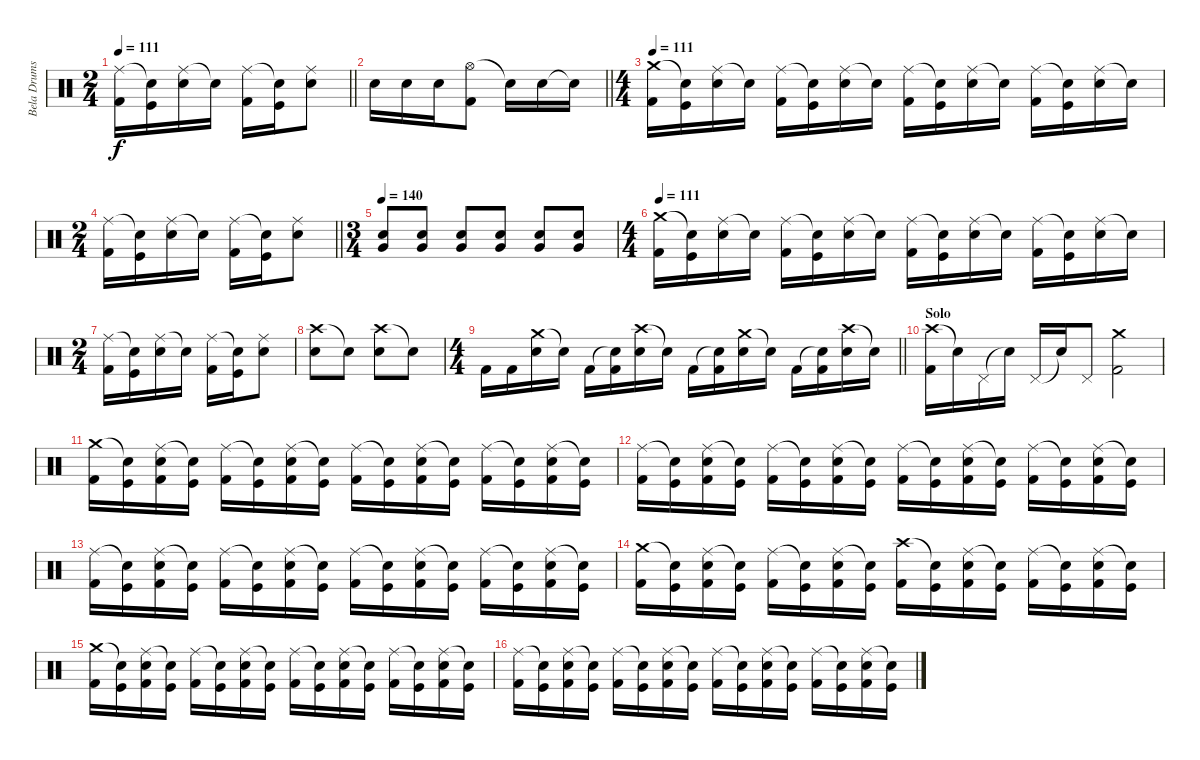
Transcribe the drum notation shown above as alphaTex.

\track ("Bela Drums" "Bela Drums") {instrument percussion}
\staff {score}
\articulation defaults
\ts (2 4)
\tempo 111
\clef neutral
\barLineRight lightlight
\ks c
("Ride (middle)" "Kick (hit) 2").16{dy f} ("Snare (hit)"{t} "Kick (hit)").16 ("Ride (middle)" "Snare (hit) 2").16 "Snare (hit)"{t}.16 ("Ride (middle)" "Kick (hit) 2").16 ("Snare (hit)"{t} "Kick (hit)").16 ("Ride (middle)" "Snare (hit) 2").8 |
\barLineRight lightlight "Snare (hit) 2".16 "Snare (hit) 2".16 "Snare (hit) 2".16
("Hi-Hat (open)" "Kick (hit) 2").8 "Snare (hit) 2"{t}.16 "Snare (hit) 2".16 "Snare (hit) 2"{t}.16 |
\ts (4 4)
\tempo 111
("Crash medium (hit)" "Kick (hit) 2").16 ("Snare (hit)"{t} "Kick (hit)").16 ("Ride (middle)" "Snare (hit) 2").16 "Snare (hit)"{t}.16 ("Ride (middle)" "Kick (hit) 2").16 ("Snare (hit)"{t} "Kick (hit)").16 ("Ride (middle)" "Snare (hit) 2").16 "Snare (hit)"{t}.16 ("Ride (middle)" "Kick (hit) 2").16 ("Snare (hit)"{t} "Kick (hit)").16 ("Ride (middle)" "Snare (hit) 2").16 "Snare (hit)"{t}.16 ("Ride (middle)" "Kick (hit) 2").16 ("Snare (hit)"{t} "Kick (hit)").16 ("Ride (middle)" "Snare (hit) 2").16 "Snare (hit)"{t}.16 |
\ts (2 4)
\barLineRight lightlight
("Ride (middle)" "Kick (hit) 2").16 ("Snare (hit)"{t} "Kick (hit)").16 ("Ride (middle)" "Snare (hit) 2").16 "Snare (hit)"{t}.16 ("Ride (middle)" "Kick (hit) 2").16 ("Snare (hit)"{t} "Kick (hit)").16 ("Ride (middle)" "Snare (hit) 2").8 |
\ts (3 4)
\tempo 140
("Very Low Tom (hit)" "Snare (hit) 2").8 ("Very Low Tom (hit)" "Snare (hit) 2").8 ("Very Low Tom (hit)" "Snare (hit) 2").8 ("Very Low Tom (hit)" "Snare (hit) 2").8 ("Very Low Tom (hit)" "Snare (hit) 2").8 ("Very Low Tom (hit)" "Snare (hit) 2").8 |
\ts (4 4)
\tempo 111
("Crash medium (hit)" "Kick (hit) 2").16 ("Snare (hit)"{t} "Kick (hit)").16 ("Ride (middle)" "Snare (hit) 2").16 "Snare (hit)"{t}.16 ("Ride (middle)" "Kick (hit) 2").16 ("Snare (hit)"{t} "Kick (hit)").16 ("Ride (middle)" "Snare (hit) 2").16 "Snare (hit)"{t}.16 ("Ride (middle)" "Kick (hit) 2").16 ("Snare (hit)"{t} "Kick (hit)").16 ("Ride (middle)" "Snare (hit) 2").16 "Snare (hit)"{t}.16 ("Ride (middle)" "Kick (hit) 2").16 ("Snare (hit)"{t} "Kick (hit)").16 ("Ride (middle)" "Snare (hit) 2").16 "Snare (hit)"{t}.16 |
\ts (2 4)
("Ride (middle)" "Kick (hit) 2").16 ("Snare (hit)"{t} "Kick (hit)").16 ("Ride (middle)" "Snare (hit) 2").16 "Snare (hit)"{t}.16 ("Ride (middle)" "Kick (hit) 2").16 ("Snare (hit)"{t} "Kick (hit)").16 ("Ride (middle)" "Snare (hit) 2").8 |
("Crash high (hit)" "Snare (hit) 2").8 "Snare (hit)"{t}.8 ("Crash high (hit)" "Snare (hit) 2").8 "Snare (hit)"{t}.8 |
\ts (4 4)
\barLineRight lightlight "Kick (hit) 2".16 "Kick (hit) 2".16
("Crash medium (hit)" "Snare (hit) 2").16 "Snare (hit)"{t}.16 "Kick (hit) 2".16 ("Snare (hit)"{t} "Kick (hit) 2").16 ("Crash high (hit)" "Snare (hit) 2").16 "Snare (hit)"{t}.16 "Kick (hit) 2".16 ("Snare (hit)"{t} "Kick (hit) 2").16 ("Crash medium (hit)" "Snare (hit) 2").16 "Snare (hit)"{t}.16 "Kick (hit) 2".16 ("Snare (hit)"{t} "Kick (hit) 2").16 ("Crash high (hit)" "Snare (hit) 2").16 "Snare (hit)"{t}.16 |
\section ("" "Solo")
("Crash high (hit)" "Kick (hit) 2").16 "Snare (hit)"{t}.16 "Pedal Hi-Hat (hit)".16 "Snare (hit)"{t}.16 "Pedal Hi-Hat (hit)".16 "Snare (hit)"{t}.16 "Pedal Hi-Hat (hit)".8 ("Crash medium (hit)" "Kick (hit) 2").2 |
("Crash medium (hit)" "Kick (hit) 2").16 ("Snare (hit)"{t} "Kick (hit)").16 ("Ride (middle)" "Snare (hit) 2" "Kick (hit) 2").16 ("Snare (hit)"{t} "Kick (hit)").16 ("Ride (middle)" "Kick (hit) 2").16 ("Snare (hit)"{t} "Kick (hit)").16 ("Ride (middle)" "Snare (hit) 2" "Kick (hit) 2").16 ("Snare (hit)"{t} "Kick (hit)").16 ("Ride (middle)" "Kick (hit) 2").16 ("Snare (hit)"{t} "Kick (hit)").16 ("Ride (middle)" "Snare (hit) 2" "Kick (hit) 2").16 ("Snare (hit)"{t} "Kick (hit)").16 ("Ride (middle)" "Kick (hit) 2").16 ("Snare (hit)"{t} "Kick (hit)").16 ("Ride (middle)" "Snare (hit) 2" "Kick (hit) 2").16 ("Snare (hit)"{t} "Kick (hit)").16 |
("Ride (middle)" "Kick (hit) 2").16 ("Snare (hit)"{t} "Kick (hit)").16 ("Ride (middle)" "Snare (hit) 2" "Kick (hit) 2").16 ("Snare (hit)"{t} "Kick (hit)").16 ("Ride (middle)" "Kick (hit) 2").16 ("Snare (hit)"{t} "Kick (hit)").16 ("Ride (middle)" "Snare (hit) 2" "Kick (hit) 2").16 ("Snare (hit)"{t} "Kick (hit)").16 ("Ride (middle)" "Kick (hit) 2").16 ("Snare (hit)"{t} "Kick (hit)").16 ("Ride (middle)" "Snare (hit) 2" "Kick (hit) 2").16 ("Snare (hit)"{t} "Kick (hit)").16 ("Ride (middle)" "Kick (hit) 2").16 ("Snare (hit)"{t} "Kick (hit)").16 ("Ride (middle)" "Snare (hit) 2" "Kick (hit) 2").16 ("Snare (hit)"{t} "Kick (hit)").16 |
("Ride (middle)" "Kick (hit) 2").16 ("Snare (hit)"{t} "Kick (hit)").16 ("Ride (middle)" "Snare (hit) 2" "Kick (hit) 2").16 ("Snare (hit)"{t} "Kick (hit)").16 ("Ride (middle)" "Kick (hit) 2").16 ("Snare (hit)"{t} "Kick (hit)").16 ("Ride (middle)" "Snare (hit) 2" "Kick (hit) 2").16 ("Snare (hit)"{t} "Kick (hit)").16 ("Ride (middle)" "Kick (hit) 2").16 ("Snare (hit)"{t} "Kick (hit)").16 ("Ride (middle)" "Snare (hit) 2" "Kick (hit) 2").16 ("Snare (hit)"{t} "Kick (hit)").16 ("Ride (middle)" "Kick (hit) 2").16 ("Snare (hit)"{t} "Kick (hit)").16 ("Ride (middle)" "Snare (hit) 2" "Kick (hit) 2").16 ("Snare (hit)"{t} "Kick (hit)").16 |
("Crash medium (hit)" "Kick (hit) 2").16 ("Snare (hit)"{t} "Kick (hit)").16 ("Ride (middle)" "Snare (hit) 2" "Kick (hit) 2").16 ("Snare (hit)"{t} "Kick (hit)").16 ("Ride (middle)" "Kick (hit) 2").16 ("Snare (hit)"{t} "Kick (hit)").16 ("Ride (middle)" "Snare (hit) 2" "Kick (hit) 2").16 ("Snare (hit)"{t} "Kick (hit)").16 ("Crash high (hit)" "Kick (hit) 2").16 ("Snare (hit)"{t} "Kick (hit)").16 ("Ride (middle)" "Snare (hit) 2" "Kick (hit) 2").16 ("Snare (hit)"{t} "Kick (hit)").16 ("Ride (middle)" "Kick (hit) 2").16 ("Snare (hit)"{t} "Kick (hit)").16 ("Ride (middle)" "Snare (hit) 2" "Kick (hit) 2").16 ("Snare (hit)"{t} "Kick (hit)").16 |
("Crash medium (hit)" "Kick (hit) 2").16 ("Snare (hit)"{t} "Kick (hit)").16 ("Ride (middle)" "Snare (hit) 2" "Kick (hit) 2").16 ("Snare (hit)"{t} "Kick (hit)").16 ("Ride (middle)" "Kick (hit) 2").16 ("Snare (hit)"{t} "Kick (hit)").16 ("Ride (middle)" "Snare (hit) 2" "Kick (hit) 2").16 ("Snare (hit)"{t} "Kick (hit)").16 ("Ride (middle)" "Kick (hit) 2").16 ("Snare (hit)"{t} "Kick (hit)").16 ("Ride (middle)" "Snare (hit) 2" "Kick (hit) 2").16 ("Snare (hit)"{t} "Kick (hit)").16 ("Ride (middle)" "Kick (hit) 2").16 ("Snare (hit)"{t} "Kick (hit)").16 ("Ride (middle)" "Snare (hit) 2" "Kick (hit) 2").16 ("Snare (hit)"{t} "Kick (hit)").16 |
("Ride (middle)" "Kick (hit) 2").16 ("Snare (hit)"{t} "Kick (hit)").16 ("Ride (middle)" "Snare (hit) 2" "Kick (hit) 2").16 ("Snare (hit)"{t} "Kick (hit)").16 ("Ride (middle)" "Kick (hit) 2").16 ("Snare (hit)"{t} "Kick (hit)").16 ("Ride (middle)" "Snare (hit) 2" "Kick (hit) 2").16 ("Snare (hit)"{t} "Kick (hit)").16 ("Ride (middle)" "Kick (hit) 2").16 ("Snare (hit)"{t} "Kick (hit)").16 ("Ride (middle)" "Snare (hit) 2" "Kick (hit) 2").16 ("Snare (hit)"{t} "Kick (hit)").16 ("Ride (middle)" "Kick (hit) 2").16 ("Snare (hit)"{t} "Kick (hit)").16 ("Ride (middle)" "Snare (hit) 2" "Kick (hit) 2").16 ("Snare (hit)"{t} "Kick (hit)").16
